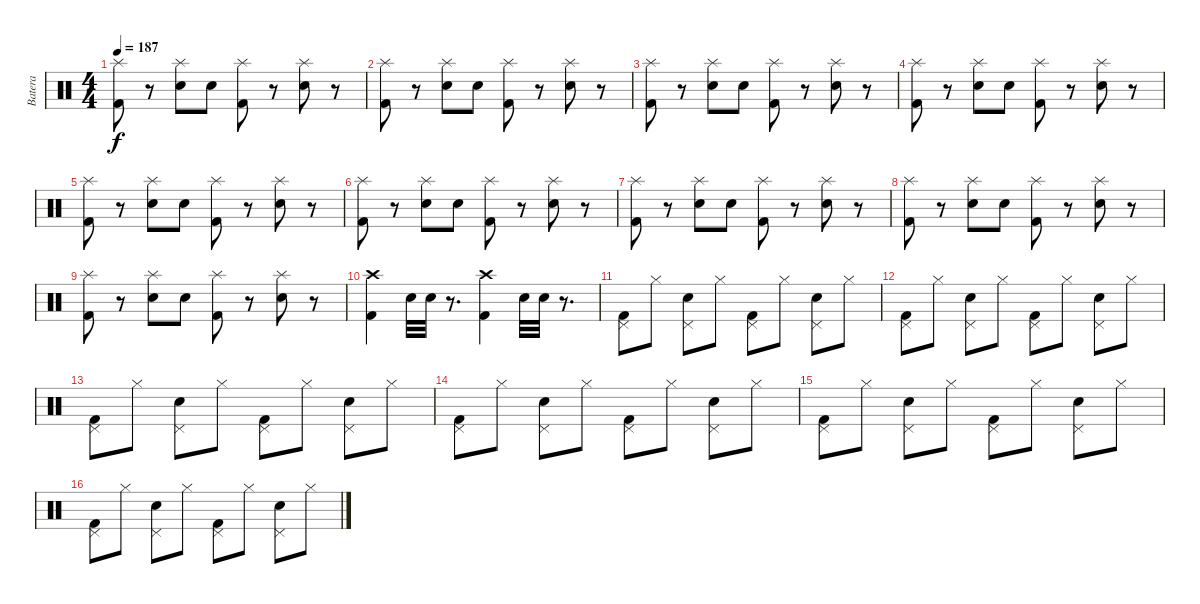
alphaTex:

\track ("Batera" "Batera") {instrument percussion}
\staff {score}
\articulation defaults
\ts (4 4)
\tempo 187
\clef neutral
\ks c
("Splash (hit)" "Kick (hit) 2").8{dy f} r.8 ("Splash (hit)" "Electric Snare (hit)").8 "Electric Snare (hit)".8 ("Splash (hit)" "Kick (hit) 2").8 r.8 ("Splash (hit)" "Electric Snare (hit)").8 r.8 |
("Splash (hit)" "Kick (hit) 2").8 r.8 ("Splash (hit)" "Electric Snare (hit)").8 "Electric Snare (hit)".8 ("Splash (hit)" "Kick (hit) 2").8 r.8 ("Splash (hit)" "Electric Snare (hit)").8 r.8 |
("Splash (hit)" "Kick (hit) 2").8 r.8 ("Splash (hit)" "Electric Snare (hit)").8 "Electric Snare (hit)".8 ("Splash (hit)" "Kick (hit) 2").8 r.8 ("Splash (hit)" "Electric Snare (hit)").8 r.8 |
("Splash (hit)" "Kick (hit) 2").8 r.8 ("Splash (hit)" "Electric Snare (hit)").8 "Electric Snare (hit)".8 ("Splash (hit)" "Kick (hit) 2").8 r.8 ("Splash (hit)" "Electric Snare (hit)").8 r.8 |
("Splash (hit)" "Kick (hit) 2").8 r.8 ("Splash (hit)" "Electric Snare (hit)").8 "Electric Snare (hit)".8 ("Splash (hit)" "Kick (hit) 2").8 r.8 ("Splash (hit)" "Electric Snare (hit)").8 r.8 |
("Splash (hit)" "Kick (hit) 2").8 r.8 ("Splash (hit)" "Electric Snare (hit)").8 "Electric Snare (hit)".8 ("Splash (hit)" "Kick (hit) 2").8 r.8 ("Splash (hit)" "Electric Snare (hit)").8 r.8 |
("Splash (hit)" "Kick (hit) 2").8 r.8 ("Splash (hit)" "Electric Snare (hit)").8 "Electric Snare (hit)".8 ("Splash (hit)" "Kick (hit) 2").8 r.8 ("Splash (hit)" "Electric Snare (hit)").8 r.8 |
("Splash (hit)" "Kick (hit) 2").8 r.8 ("Splash (hit)" "Electric Snare (hit)").8 "Electric Snare (hit)".8 ("Splash (hit)" "Kick (hit) 2").8 r.8 ("Splash (hit)" "Electric Snare (hit)").8 r.8 |
("Splash (hit)" "Kick (hit) 2").8 r.8 ("Splash (hit)" "Electric Snare (hit)").8 "Electric Snare (hit)".8 ("Splash (hit)" "Kick (hit) 2").8 r.8 ("Splash (hit)" "Electric Snare (hit)").8 r.8 |
("Crash high (hit)" "Kick (hit) 2").4 "Electric Snare (hit)".32 "Electric Snare (hit)".32 r.8{d} ("Crash high (hit)" "Kick (hit) 2").4 "Electric Snare (hit)".32 "Electric Snare (hit)".32 r.8{d} |
("Pedal Hi-Hat (hit)" "Kick (hit) 2").8 "Hi-Hat (closed)".8 ("Pedal Hi-Hat (hit)" "Electric Snare (hit)").8 "Hi-Hat (closed)".8 ("Pedal Hi-Hat (hit)" "Kick (hit) 2").8 "Hi-Hat (closed)".8 ("Pedal Hi-Hat (hit)" "Electric Snare (hit)").8 "Hi-Hat (closed)".8 |
("Pedal Hi-Hat (hit)" "Kick (hit) 2").8 "Hi-Hat (closed)".8 ("Pedal Hi-Hat (hit)" "Electric Snare (hit)").8 "Hi-Hat (closed)".8 ("Pedal Hi-Hat (hit)" "Kick (hit) 2").8 "Hi-Hat (closed)".8 ("Pedal Hi-Hat (hit)" "Electric Snare (hit)").8 "Hi-Hat (closed)".8 |
("Pedal Hi-Hat (hit)" "Kick (hit) 2").8 "Hi-Hat (closed)".8 ("Pedal Hi-Hat (hit)" "Electric Snare (hit)").8 "Hi-Hat (closed)".8 ("Pedal Hi-Hat (hit)" "Kick (hit) 2").8 "Hi-Hat (closed)".8 ("Pedal Hi-Hat (hit)" "Electric Snare (hit)").8 "Hi-Hat (closed)".8 |
("Pedal Hi-Hat (hit)" "Kick (hit) 2").8 "Hi-Hat (closed)".8 ("Pedal Hi-Hat (hit)" "Electric Snare (hit)").8 "Hi-Hat (closed)".8 ("Pedal Hi-Hat (hit)" "Kick (hit) 2").8 "Hi-Hat (closed)".8 ("Pedal Hi-Hat (hit)" "Electric Snare (hit)").8 "Hi-Hat (closed)".8 |
("Pedal Hi-Hat (hit)" "Kick (hit) 2").8 "Hi-Hat (closed)".8 ("Pedal Hi-Hat (hit)" "Electric Snare (hit)").8 "Hi-Hat (closed)".8 ("Pedal Hi-Hat (hit)" "Kick (hit) 2").8 "Hi-Hat (closed)".8 ("Pedal Hi-Hat (hit)" "Electric Snare (hit)").8 "Hi-Hat (closed)".8 |
("Pedal Hi-Hat (hit)" "Kick (hit) 2").8 "Hi-Hat (closed)".8 ("Pedal Hi-Hat (hit)" "Electric Snare (hit)").8 "Hi-Hat (closed)".8 ("Pedal Hi-Hat (hit)" "Kick (hit) 2").8 "Hi-Hat (closed)".8 ("Pedal Hi-Hat (hit)" "Electric Snare (hit)").8 "Hi-Hat (closed)".8
